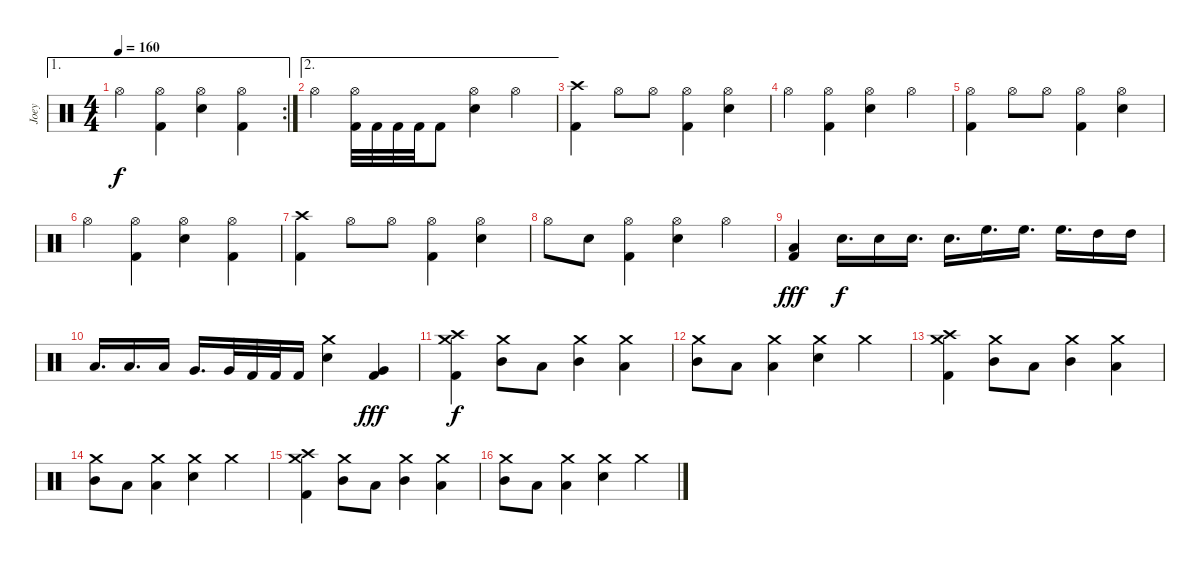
\track ("Joey" "Joey") {instrument percussion}
\staff {score}
\articulation defaults
\ae 1
\rc 2
\ts (4 4)
\tempo 160
\clef neutral
\ks c "Hi-Hat (open)".4{dy f}
("Hi-Hat (open)" "Kick (hit) 2").4 ("Hi-Hat (open)" "Electric Snare (hit)").4 ("Hi-Hat (open)" "Kick (hit) 2").4 |
\ae 2 "Hi-Hat (open)".4
("Hi-Hat (open)" "Kick (hit) 2").32 "Kick (hit) 2".32 "Kick (hit) 2".32 "Kick (hit) 2".32 "Kick (hit) 2".8 ("Hi-Hat (open)" "Electric Snare (hit)").4 "Hi-Hat (open)".4 |
("Crash high (hit)" "Kick (hit) 2").4 "Hi-Hat (open)".8 "Hi-Hat (open)".8 ("Hi-Hat (open)" "Kick (hit) 2").4 ("Hi-Hat (open)" "Electric Snare (hit)").4 |
"Hi-Hat (open)".4 ("Hi-Hat (open)" "Kick (hit) 2").4 ("Hi-Hat (open)" "Electric Snare (hit)").4 "Hi-Hat (open)".4 |
("Hi-Hat (open)" "Kick (hit) 2").4 "Hi-Hat (open)".8 "Hi-Hat (open)".8 ("Hi-Hat (open)" "Kick (hit) 2").4 ("Hi-Hat (open)" "Electric Snare (hit)").4 |
"Hi-Hat (open)".4 ("Hi-Hat (open)" "Kick (hit) 2").4 ("Hi-Hat (open)" "Electric Snare (hit)").4 ("Hi-Hat (open)" "Kick (hit) 2").4 |
("Crash high (hit)" "Kick (hit) 2").4 "Hi-Hat (open)".8 "Hi-Hat (open)".8 ("Hi-Hat (open)" "Kick (hit) 2").4 ("Hi-Hat (open)" "Electric Snare (hit)").4 |
"Hi-Hat (open)".8 "Electric Snare (hit)".8 ("Hi-Hat (open)" "Kick (hit) 2").4 ("Hi-Hat (open)" "Electric Snare (hit)").4 "Hi-Hat (open)".4 |
("Low Floor Tom (hit)" "Kick (hit) 2").4{dy fff} "Electric Snare (hit)".16{d dy f} "Electric Snare (hit)".16 "Electric Snare (hit)".16{d} "Electric Snare (hit)".16{d} "High Floor Tom (hit)".16{d} "High Floor Tom (hit)".16{d} "High Floor Tom (hit)".16{d} "High Tom (hit)".16 "High Tom (hit)".16 |
"Low Tom (hit)".16{d} "Low Tom (hit)".16{d} "Low Tom (hit)".16 "Very Low Tom (hit)".16{d} "Very Low Tom (hit)".32 "Kick (hit) 2".32 "Kick (hit) 2".32 "Kick (hit) 2".16 ("Crash medium (hit)" "Electric Snare (hit)").4 ("Very Low Tom (hit)" "Kick (hit) 2").4{dy fff} |
("Crash high (hit)" "Crash medium (hit)" "Kick (hit) 2").4{dy f} ("Crash medium (hit)" "Mid Tom (hit)").8 "Low Tom (hit)".8 ("Crash medium (hit)" "Mid Tom (hit)").4 ("Crash medium (hit)" "Low Tom (hit)").4 |
("Crash medium (hit)" "Mid Tom (hit)").8 "Low Tom (hit)".8 ("Crash medium (hit)" "Low Tom (hit)").4 ("Crash medium (hit)" "Electric Snare (hit)").4 "Crash medium (hit)".4 |
("Crash high (hit)" "Crash medium (hit)" "Kick (hit) 2").4 ("Crash medium (hit)" "Mid Tom (hit)").8 "Low Tom (hit)".8 ("Crash medium (hit)" "Mid Tom (hit)").4 ("Crash medium (hit)" "Low Tom (hit)").4 |
("Crash medium (hit)" "Mid Tom (hit)").8 "Low Tom (hit)".8 ("Crash medium (hit)" "Low Tom (hit)").4 ("Crash medium (hit)" "Electric Snare (hit)").4 "Crash medium (hit)".4 |
("Crash high (hit)" "Crash medium (hit)" "Kick (hit) 2").4 ("Crash medium (hit)" "Mid Tom (hit)").8 "Low Tom (hit)".8 ("Crash medium (hit)" "Mid Tom (hit)").4 ("Crash medium (hit)" "Low Tom (hit)").4 |
("Crash medium (hit)" "Mid Tom (hit)").8 "Low Tom (hit)".8 ("Crash medium (hit)" "Low Tom (hit)").4 ("Crash medium (hit)" "Electric Snare (hit)").4 "Crash medium (hit)".4
